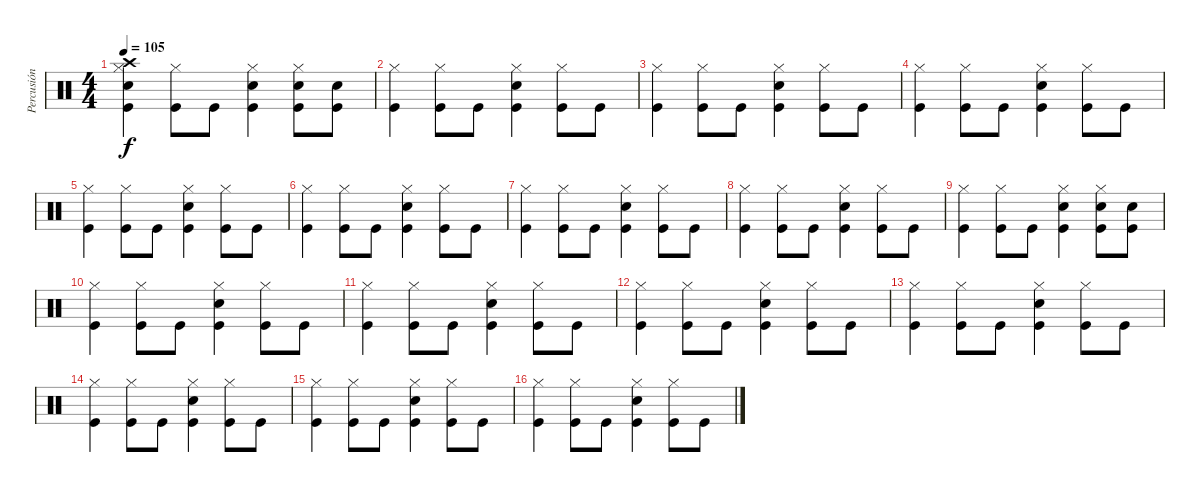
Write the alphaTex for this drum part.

\track ("Percusión" "Percusión") {instrument percussion}
\staff {score}
\articulation defaults
\ts (4 4)
\tempo 105
\clef neutral
\ks c
("Hi-Hat (closed)" "Crash high (hit)" "Snare (hit) 2" "Kick (hit)").4{dy f} ("Hi-Hat (closed)" "Kick (hit)").8 "Kick (hit)".8 ("Hi-Hat (closed)" "Snare (hit) 2" "Kick (hit)").4 ("Hi-Hat (closed)" "Snare (hit) 2" "Kick (hit)").8 ("Snare (hit) 2" "Kick (hit)").8 |
("Hi-Hat (closed)" "Kick (hit)").4 ("Hi-Hat (closed)" "Kick (hit)").8 "Kick (hit)".8 ("Hi-Hat (closed)" "Snare (hit) 2" "Kick (hit)").4 ("Hi-Hat (closed)" "Kick (hit)").8 "Kick (hit)".8 |
("Hi-Hat (closed)" "Kick (hit)").4 ("Hi-Hat (closed)" "Kick (hit)").8 "Kick (hit)".8 ("Hi-Hat (closed)" "Snare (hit) 2" "Kick (hit)").4 ("Hi-Hat (closed)" "Kick (hit)").8 "Kick (hit)".8 |
("Hi-Hat (closed)" "Kick (hit)").4 ("Hi-Hat (closed)" "Kick (hit)").8 "Kick (hit)".8 ("Hi-Hat (closed)" "Snare (hit) 2" "Kick (hit)").4 ("Hi-Hat (closed)" "Kick (hit)").8 "Kick (hit)".8 |
("Hi-Hat (closed)" "Kick (hit)").4 ("Hi-Hat (closed)" "Kick (hit)").8 "Kick (hit)".8 ("Hi-Hat (closed)" "Snare (hit) 2" "Kick (hit)").4 ("Hi-Hat (closed)" "Kick (hit)").8 "Kick (hit)".8 |
("Hi-Hat (closed)" "Kick (hit)").4 ("Hi-Hat (closed)" "Kick (hit)").8 "Kick (hit)".8 ("Hi-Hat (closed)" "Snare (hit) 2" "Kick (hit)").4 ("Hi-Hat (closed)" "Kick (hit)").8 "Kick (hit)".8 |
("Hi-Hat (closed)" "Kick (hit)").4 ("Hi-Hat (closed)" "Kick (hit)").8 "Kick (hit)".8 ("Hi-Hat (closed)" "Snare (hit) 2" "Kick (hit)").4 ("Hi-Hat (closed)" "Kick (hit)").8 "Kick (hit)".8 |
("Hi-Hat (closed)" "Kick (hit)").4 ("Hi-Hat (closed)" "Kick (hit)").8 "Kick (hit)".8 ("Hi-Hat (closed)" "Snare (hit) 2" "Kick (hit)").4 ("Hi-Hat (closed)" "Kick (hit)").8 "Kick (hit)".8 |
("Hi-Hat (closed)" "Kick (hit)").4 ("Hi-Hat (closed)" "Kick (hit)").8 "Kick (hit)".8 ("Hi-Hat (closed)" "Snare (hit) 2" "Kick (hit)").4 ("Hi-Hat (closed)" "Snare (hit) 2" "Kick (hit)").8 ("Snare (hit) 2" "Kick (hit)").8 |
("Hi-Hat (closed)" "Kick (hit)").4 ("Hi-Hat (closed)" "Kick (hit)").8 "Kick (hit)".8 ("Hi-Hat (closed)" "Snare (hit) 2" "Kick (hit)").4 ("Hi-Hat (closed)" "Kick (hit)").8 "Kick (hit)".8 |
("Hi-Hat (closed)" "Kick (hit)").4 ("Hi-Hat (closed)" "Kick (hit)").8 "Kick (hit)".8 ("Hi-Hat (closed)" "Snare (hit) 2" "Kick (hit)").4 ("Hi-Hat (closed)" "Kick (hit)").8 "Kick (hit)".8 |
("Hi-Hat (closed)" "Kick (hit)").4 ("Hi-Hat (closed)" "Kick (hit)").8 "Kick (hit)".8 ("Hi-Hat (closed)" "Snare (hit) 2" "Kick (hit)").4 ("Hi-Hat (closed)" "Kick (hit)").8 "Kick (hit)".8 |
("Hi-Hat (closed)" "Kick (hit)").4 ("Hi-Hat (closed)" "Kick (hit)").8 "Kick (hit)".8 ("Hi-Hat (closed)" "Snare (hit) 2" "Kick (hit)").4 ("Hi-Hat (closed)" "Kick (hit)").8 "Kick (hit)".8 |
("Hi-Hat (closed)" "Kick (hit)").4 ("Hi-Hat (closed)" "Kick (hit)").8 "Kick (hit)".8 ("Hi-Hat (closed)" "Snare (hit) 2" "Kick (hit)").4 ("Hi-Hat (closed)" "Kick (hit)").8 "Kick (hit)".8 |
("Hi-Hat (closed)" "Kick (hit)").4 ("Hi-Hat (closed)" "Kick (hit)").8 "Kick (hit)".8 ("Hi-Hat (closed)" "Snare (hit) 2" "Kick (hit)").4 ("Hi-Hat (closed)" "Kick (hit)").8 "Kick (hit)".8 |
("Hi-Hat (closed)" "Kick (hit)").4 ("Hi-Hat (closed)" "Kick (hit)").8 "Kick (hit)".8 ("Hi-Hat (closed)" "Snare (hit) 2" "Kick (hit)").4 ("Hi-Hat (closed)" "Kick (hit)").8 "Kick (hit)".8
